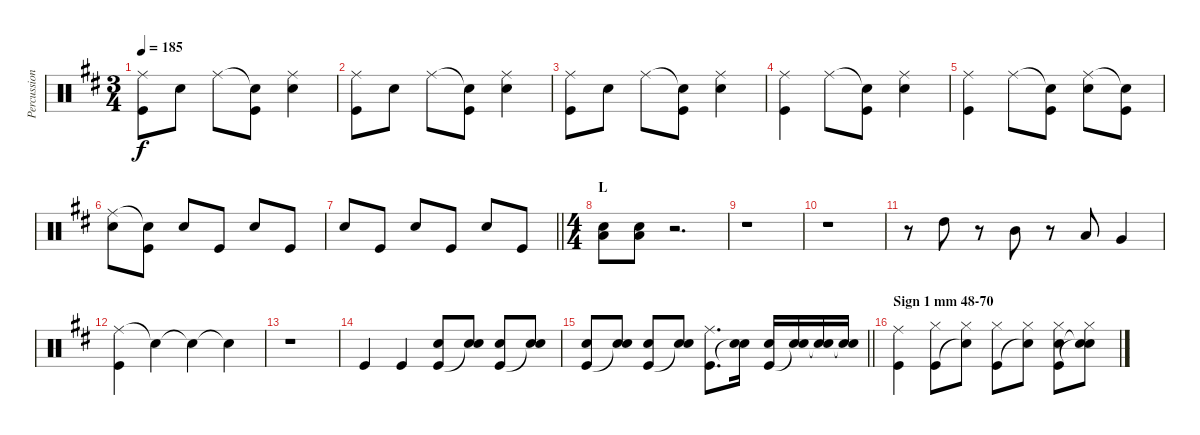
\track ("Percussion" "Percussion") {instrument percussion}
\staff {score}
\articulation defaults
\ts (3 4)
\tempo 185
\clef neutral
\ks d
("Ride (middle)" "Kick (hit)").8{dy f} "Snare (hit) 2".8 "Ride (middle)".8 ("Snare (hit)"{t} "Kick (hit)").8 ("Ride (middle)" "Snare (hit) 2").4 |
("Ride (middle)" "Kick (hit)").8 "Snare (hit) 2".8 "Ride (middle)".8 ("Snare (hit)"{t} "Kick (hit)").8 ("Ride (middle)" "Snare (hit) 2").4 |
("Ride (middle)" "Kick (hit)").8 "Snare (hit) 2".8 "Ride (middle)".8 ("Snare (hit)"{t} "Kick (hit)").8 ("Ride (middle)" "Snare (hit) 2").4 |
("Ride (middle)" "Kick (hit)").4 "Ride (middle)".8 ("Snare (hit)"{t} "Kick (hit)").8 ("Ride (middle)" "Snare (hit) 2").4 |
("Ride (middle)" "Kick (hit)").4 "Ride (middle)".8 ("Snare (hit)"{t} "Kick (hit)").8 ("Ride (middle)" "Snare (hit) 2").8 ("Snare (hit)"{t} "Kick (hit)").8 |
("Ride (middle)" "Snare (hit) 2").8 ("Snare (hit)"{t} "Kick (hit)").8 "Snare (hit) 2".8 "Kick (hit)".8 "Snare (hit) 2".8 "Kick (hit)".8 |
\barLineRight lightlight "Snare (hit) 2".8 "Kick (hit)".8 "Snare (hit) 2".8 "Kick (hit)".8 "Snare (hit) 2".8 "Kick (hit)".8
|
\ts (4 4)
\section ("" "L")
("Low Tom (hit)" "Snare (hit) 2").8 ("Low Tom (hit)" "Snare (hit) 2").8 r.2{d} |
r.1 |
r.1 |
r.8 "High Tom (hit)".8 r.8 "Mid Tom (hit)".8 r.8 "Low Tom (hit)".8 "Very Low Tom (hit)".4 |
("Ride (middle)" "Kick (hit)").4 "Snare (hit)"{t}.4 "Snare (hit)"{t}.4 "Snare (hit)"{t}.4 |
r.1 |
"Kick (hit)".4 "Kick (hit)".4 ("Snare (hit) 2" "Kick (hit)").8 ("Snare (hit) 2" "Snare (hit)"{t}).8 ("Snare (hit) 2" "Kick (hit)").8 ("Snare (hit) 2" "Snare (hit)"{t}).8 |
\barLineRight lightlight
("Snare (hit) 2" "Kick (hit)").8 ("Snare (hit) 2" "Snare (hit)"{t}).8 ("Snare (hit) 2" "Kick (hit)").8 ("Snare (hit) 2" "Snare (hit)"{t}).8 ("Ride (middle)" "Kick (hit)").8{d} ("Snare (hit) 2" "Snare (hit)"{t}).16 ("Snare (hit) 2" "Kick (hit)").16 ("Snare (hit) 2" "Snare (hit)"{t}).16 ("Snare (hit) 2" "Snare (hit)"{t}).16 ("Snare (hit) 2" "Snare (hit)"{t}).16 |
\section ("" "Sign 1 mm 48-70")
("Ride (middle)" "Kick (hit)").4 ("Hi-Hat (closed)" "Kick (hit)").8 ("Hi-Hat (closed)" "Snare (hit)"{t}).8 ("Hi-Hat (closed)" "Kick (hit)").8 ("Hi-Hat (closed)" "Snare (hit)"{t}).8 ("Hi-Hat (closed)" "Snare (hit) 2" "Kick (hit)").8 ("Hi-Hat (closed)" "Snare (hit)"{t} "Snare (hit)"{t}).8
